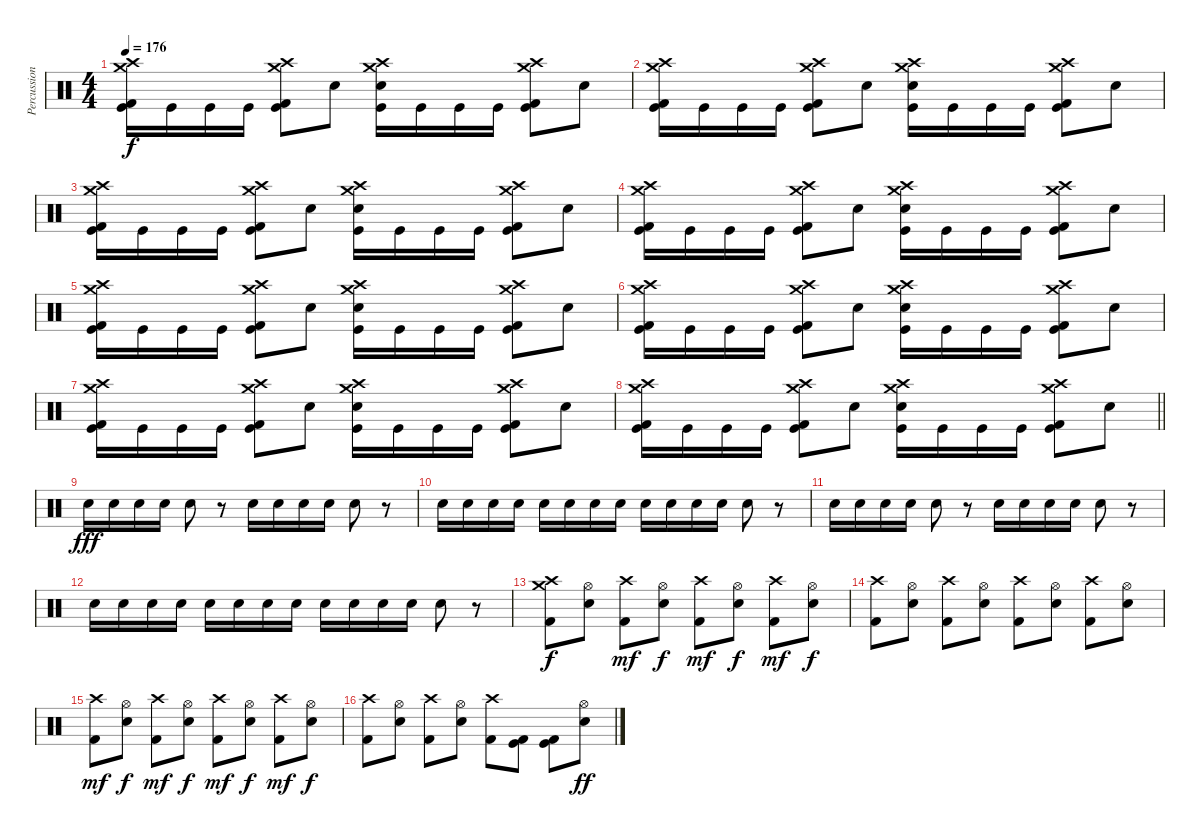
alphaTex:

\track ("Percussion" "Percussion") {instrument percussion}
\staff {score}
\articulation defaults
\ts (4 4)
\tempo 176
\clef neutral
\ks c
("Crash medium (hit)" "Crash high (hit)" "Kick (hit) 2" "Kick (hit)").16{dy f} "Kick (hit)".16 "Kick (hit)".16 "Kick (hit)".16 ("Crash high (hit)" "Crash medium (hit)" "Kick (hit) 2" "Kick (hit)").8 "Snare (hit)"{x}.8 ("Crash medium (hit)" "Crash high (hit)" "Electric Snare (hit)" "Kick (hit)").16 "Kick (hit)".16 "Kick (hit)".16 "Kick (hit)".16 ("Crash high (hit)" "Crash medium (hit)" "Kick (hit) 2" "Kick (hit)").8 "Snare (hit)"{x}.8 |
("Crash medium (hit)" "Crash high (hit)" "Kick (hit) 2" "Kick (hit)").16 "Kick (hit)".16 "Kick (hit)".16 "Kick (hit)".16 ("Crash high (hit)" "Crash medium (hit)" "Kick (hit) 2" "Kick (hit)").8 "Snare (hit)"{x}.8 ("Crash medium (hit)" "Crash high (hit)" "Electric Snare (hit)" "Kick (hit)").16 "Kick (hit)".16 "Kick (hit)".16 "Kick (hit)".16 ("Crash high (hit)" "Crash medium (hit)" "Kick (hit) 2" "Kick (hit)").8 "Snare (hit)"{x}.8 |
("Crash medium (hit)" "Crash high (hit)" "Kick (hit) 2" "Kick (hit)").16 "Kick (hit)".16 "Kick (hit)".16 "Kick (hit)".16 ("Crash high (hit)" "Crash medium (hit)" "Kick (hit) 2" "Kick (hit)").8 "Snare (hit)"{x}.8 ("Crash medium (hit)" "Crash high (hit)" "Electric Snare (hit)" "Kick (hit)").16 "Kick (hit)".16 "Kick (hit)".16 "Kick (hit)".16 ("Crash high (hit)" "Crash medium (hit)" "Kick (hit) 2" "Kick (hit)").8 "Snare (hit)"{x}.8 |
("Crash medium (hit)" "Crash high (hit)" "Kick (hit) 2" "Kick (hit)").16 "Kick (hit)".16 "Kick (hit)".16 "Kick (hit)".16 ("Crash high (hit)" "Crash medium (hit)" "Kick (hit) 2" "Kick (hit)").8 "Snare (hit)"{x}.8 ("Crash medium (hit)" "Crash high (hit)" "Electric Snare (hit)" "Kick (hit)").16 "Kick (hit)".16 "Kick (hit)".16 "Kick (hit)".16 ("Crash high (hit)" "Crash medium (hit)" "Kick (hit) 2" "Kick (hit)").8 "Snare (hit)"{x}.8 |
("Crash medium (hit)" "Crash high (hit)" "Kick (hit) 2" "Kick (hit)").16 "Kick (hit)".16 "Kick (hit)".16 "Kick (hit)".16 ("Crash high (hit)" "Crash medium (hit)" "Kick (hit) 2" "Kick (hit)").8 "Snare (hit)"{x}.8 ("Crash medium (hit)" "Crash high (hit)" "Electric Snare (hit)" "Kick (hit)").16 "Kick (hit)".16 "Kick (hit)".16 "Kick (hit)".16 ("Crash high (hit)" "Crash medium (hit)" "Kick (hit) 2" "Kick (hit)").8 "Snare (hit)"{x}.8 |
("Crash medium (hit)" "Crash high (hit)" "Kick (hit) 2" "Kick (hit)").16 "Kick (hit)".16 "Kick (hit)".16 "Kick (hit)".16 ("Crash high (hit)" "Crash medium (hit)" "Kick (hit) 2" "Kick (hit)").8 "Snare (hit)"{x}.8 ("Crash medium (hit)" "Crash high (hit)" "Electric Snare (hit)" "Kick (hit)").16 "Kick (hit)".16 "Kick (hit)".16 "Kick (hit)".16 ("Crash high (hit)" "Crash medium (hit)" "Kick (hit) 2" "Kick (hit)").8 "Snare (hit)"{x}.8 |
("Crash medium (hit)" "Crash high (hit)" "Kick (hit) 2" "Kick (hit)").16 "Kick (hit)".16 "Kick (hit)".16 "Kick (hit)".16 ("Crash high (hit)" "Crash medium (hit)" "Kick (hit) 2" "Kick (hit)").8 "Snare (hit)"{x}.8 ("Crash medium (hit)" "Crash high (hit)" "Electric Snare (hit)" "Kick (hit)").16 "Kick (hit)".16 "Kick (hit)".16 "Kick (hit)".16 ("Crash high (hit)" "Crash medium (hit)" "Kick (hit) 2" "Kick (hit)").8 "Snare (hit)"{x}.8 |
\barLineRight lightlight
("Crash medium (hit)" "Crash high (hit)" "Kick (hit) 2" "Kick (hit)").16 "Kick (hit)".16 "Kick (hit)".16 "Kick (hit)".16 ("Crash high (hit)" "Crash medium (hit)" "Kick (hit) 2" "Kick (hit)").8 "Snare (hit)"{x}.8 ("Crash medium (hit)" "Crash high (hit)" "Electric Snare (hit)" "Kick (hit)").16 "Kick (hit)".16 "Kick (hit)".16 "Kick (hit)".16 ("Crash high (hit)" "Crash medium (hit)" "Kick (hit) 2" "Kick (hit)").8 "Snare (hit)"{x}.8 |
"Electric Snare (hit)".16{dy fff} "Electric Snare (hit)".16 "Electric Snare (hit)".16 "Electric Snare (hit)".16 "Electric Snare (hit)".8 r.8 "Electric Snare (hit)".16 "Electric Snare (hit)".16 "Electric Snare (hit)".16 "Electric Snare (hit)".16 "Electric Snare (hit)".8 r.8 |
"Electric Snare (hit)".16 "Electric Snare (hit)".16 "Electric Snare (hit)".16 "Electric Snare (hit)".16 "Electric Snare (hit)".16 "Electric Snare (hit)".16 "Electric Snare (hit)".16 "Electric Snare (hit)".16 "Electric Snare (hit)".16 "Electric Snare (hit)".16 "Electric Snare (hit)".16 "Electric Snare (hit)".16 "Electric Snare (hit)".8 r.8 |
"Electric Snare (hit)".16 "Electric Snare (hit)".16 "Electric Snare (hit)".16 "Electric Snare (hit)".16 "Electric Snare (hit)".8 r.8 "Electric Snare (hit)".16 "Electric Snare (hit)".16 "Electric Snare (hit)".16 "Electric Snare (hit)".16 "Electric Snare (hit)".8 r.8 |
"Electric Snare (hit)".16 "Electric Snare (hit)".16 "Electric Snare (hit)".16 "Electric Snare (hit)".16 "Electric Snare (hit)".16 "Electric Snare (hit)".16 "Electric Snare (hit)".16 "Electric Snare (hit)".16 "Electric Snare (hit)".16 "Electric Snare (hit)".16 "Electric Snare (hit)".16 "Electric Snare (hit)".16 "Electric Snare (hit)".8 r.8 |
("Crash medium (hit)" "Crash high (hit)" "Kick (hit) 2").8{dy f} ("Hi-Hat (open)" "Electric Snare (hit)").8 ("Crash high (hit)" "Kick (hit) 2").8{dy mf} ("Hi-Hat (open)" "Electric Snare (hit)").8{dy f} ("Crash high (hit)" "Kick (hit) 2").8{dy mf} ("Hi-Hat (open)" "Electric Snare (hit)").8{dy f} ("Crash high (hit)" "Kick (hit) 2").8{dy mf} ("Hi-Hat (open)" "Electric Snare (hit)").8{dy f} |
("Crash high (hit)" "Kick (hit) 2").8 ("Hi-Hat (open)" "Electric Snare (hit)").8 ("Crash high (hit)" "Kick (hit) 2").8 ("Hi-Hat (open)" "Electric Snare (hit)").8 ("Crash high (hit)" "Kick (hit) 2").8 ("Hi-Hat (open)" "Electric Snare (hit)").8 ("Crash high (hit)" "Kick (hit) 2").8 ("Hi-Hat (open)" "Electric Snare (hit)").8 |
("Crash high (hit)" "Kick (hit) 2").8{dy mf} ("Hi-Hat (open)" "Electric Snare (hit)").8{dy f} ("Crash high (hit)" "Kick (hit) 2").8{dy mf} ("Hi-Hat (open)" "Electric Snare (hit)").8{dy f} ("Crash high (hit)" "Kick (hit) 2").8{dy mf} ("Hi-Hat (open)" "Electric Snare (hit)").8{dy f} ("Crash high (hit)" "Kick (hit) 2").8{dy mf} ("Hi-Hat (open)" "Electric Snare (hit)").8{dy f} |
("Crash high (hit)" "Kick (hit) 2").8 ("Hi-Hat (open)" "Electric Snare (hit)").8 ("Crash high (hit)" "Kick (hit) 2").8 ("Hi-Hat (open)" "Electric Snare (hit)").8 ("Crash high (hit)" "Kick (hit) 2").8 ("Kick (hit) 2" "Kick (hit)").8 ("Kick (hit) 2" "Kick (hit)").8 ("Hi-Hat (open)" "Electric Snare (hit)").8{dy ff}
